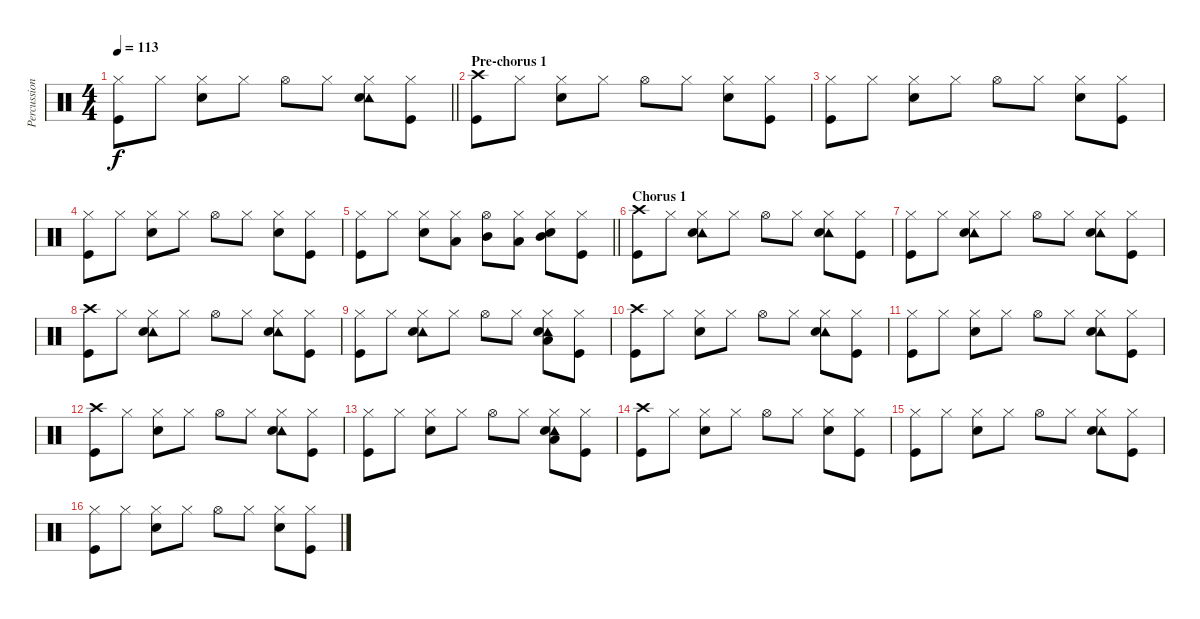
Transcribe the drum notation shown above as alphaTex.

\track ("Percussion" "Percussion") {instrument percussion}
\staff {score}
\articulation defaults
\ts (4 4)
\tempo 113
\clef neutral
\barLineRight lightlight
\ks c
("Hi-Hat (closed)" "Kick (hit)").8{dy f} "Hi-Hat (closed)".8 ("Hi-Hat (closed)" "Snare (hit) 2").8 "Hi-Hat (closed)".8 "Hi-Hat (open)".8 "Hi-Hat (closed)".8 ("Hi-Hat (closed)" "Tambourine (hit)" "Snare (hit) 2").8 ("Hi-Hat (closed)" "Kick (hit)").8 |
\section ("" "Pre-chorus 1")
("Crash high (hit)" "Kick (hit)").8 "Hi-Hat (closed)".8 ("Hi-Hat (closed)" "Snare (hit) 2").8 "Hi-Hat (closed)".8 "Hi-Hat (open)".8 "Hi-Hat (closed)".8 ("Hi-Hat (closed)" "Snare (hit) 2").8 ("Hi-Hat (closed)" "Kick (hit)").8 |
("Hi-Hat (closed)" "Kick (hit)").8 "Hi-Hat (closed)".8 ("Hi-Hat (closed)" "Snare (hit) 2").8 "Hi-Hat (closed)".8 "Hi-Hat (open)".8 "Hi-Hat (closed)".8 ("Hi-Hat (closed)" "Snare (hit) 2").8 ("Hi-Hat (closed)" "Kick (hit)").8 |
("Hi-Hat (closed)" "Kick (hit)").8 "Hi-Hat (closed)".8 ("Hi-Hat (closed)" "Snare (hit) 2").8 "Hi-Hat (closed)".8 "Hi-Hat (open)".8 "Hi-Hat (closed)".8 ("Hi-Hat (closed)" "Snare (hit) 2").8 ("Hi-Hat (closed)" "Kick (hit)").8 |
\barLineRight lightlight
("Hi-Hat (closed)" "Kick (hit)").8 "Hi-Hat (closed)".8 ("Hi-Hat (closed)" "Snare (hit) 2").8 ("Hi-Hat (closed)" "Low Tom (hit)").8 ("Hi-Hat (open)" "Mid Tom (hit)").8 ("Hi-Hat (closed)" "Low Tom (hit)").8 ("Hi-Hat (closed)" "Mid Tom (hit)" "Snare (hit) 2").8 ("Hi-Hat (closed)" "Kick (hit)").8 |
\section ("" "Chorus 1")
("Crash high (hit)" "Kick (hit)").8 "Hi-Hat (closed)".8 ("Hi-Hat (closed)" "Tambourine (hit)" "Snare (hit) 2").8 "Hi-Hat (closed)".8 "Hi-Hat (open)".8 "Hi-Hat (closed)".8 ("Hi-Hat (closed)" "Tambourine (hit)" "Snare (hit) 2").8 ("Hi-Hat (closed)" "Kick (hit)").8 |
("Hi-Hat (closed)" "Kick (hit)").8 "Hi-Hat (closed)".8 ("Hi-Hat (closed)" "Tambourine (hit)" "Snare (hit) 2").8 "Hi-Hat (closed)".8 "Hi-Hat (open)".8 "Hi-Hat (closed)".8 ("Hi-Hat (closed)" "Tambourine (hit)" "Snare (hit) 2").8 ("Hi-Hat (closed)" "Kick (hit)").8 |
("Crash high (hit)" "Kick (hit)").8 "Hi-Hat (closed)".8 ("Hi-Hat (closed)" "Tambourine (hit)" "Snare (hit) 2").8 "Hi-Hat (closed)".8 "Hi-Hat (open)".8 "Hi-Hat (closed)".8 ("Hi-Hat (closed)" "Tambourine (hit)" "Snare (hit) 2").8 ("Hi-Hat (closed)" "Kick (hit)").8 |
("Hi-Hat (closed)" "Kick (hit)").8 "Hi-Hat (closed)".8 ("Hi-Hat (closed)" "Tambourine (hit)" "Snare (hit) 2").8 "Hi-Hat (closed)".8 "Hi-Hat (open)".8 "Hi-Hat (closed)".8 ("Hi-Hat (closed)" "Tambourine (hit)" "Low Tom (hit)" "Snare (hit) 2").8 ("Hi-Hat (closed)" "Kick (hit)").8 |
("Crash high (hit)" "Kick (hit)").8 "Hi-Hat (closed)".8 ("Hi-Hat (closed)" "Snare (hit) 2").8 "Hi-Hat (closed)".8 "Hi-Hat (open)".8 "Hi-Hat (closed)".8 ("Hi-Hat (closed)" "Tambourine (hit)" "Snare (hit) 2").8 ("Hi-Hat (closed)" "Kick (hit)").8 |
("Hi-Hat (closed)" "Kick (hit)").8 "Hi-Hat (closed)".8 ("Hi-Hat (closed)" "Snare (hit) 2").8 "Hi-Hat (closed)".8 "Hi-Hat (open)".8 "Hi-Hat (closed)".8 ("Hi-Hat (closed)" "Tambourine (hit)" "Snare (hit) 2").8 ("Hi-Hat (closed)" "Kick (hit)").8 |
("Crash high (hit)" "Kick (hit)").8 "Hi-Hat (closed)".8 ("Hi-Hat (closed)" "Snare (hit) 2").8 "Hi-Hat (closed)".8 "Hi-Hat (open)".8 "Hi-Hat (closed)".8 ("Hi-Hat (closed)" "Tambourine (hit)" "Snare (hit) 2").8 ("Hi-Hat (closed)" "Kick (hit)").8 |
("Hi-Hat (closed)" "Kick (hit)").8 "Hi-Hat (closed)".8 ("Hi-Hat (closed)" "Snare (hit) 2").8 "Hi-Hat (closed)".8 "Hi-Hat (open)".8 "Hi-Hat (closed)".8 ("Hi-Hat (closed)" "Tambourine (hit)" "Low Tom (hit)" "Snare (hit) 2").8 ("Hi-Hat (closed)" "Kick (hit)").8 |
("Crash high (hit)" "Kick (hit)").8 "Hi-Hat (closed)".8 ("Hi-Hat (closed)" "Snare (hit) 2").8 "Hi-Hat (closed)".8 "Hi-Hat (open)".8 "Hi-Hat (closed)".8 ("Hi-Hat (closed)" "Snare (hit) 2").8 ("Hi-Hat (closed)" "Kick (hit)").8 |
("Hi-Hat (closed)" "Kick (hit)").8 "Hi-Hat (closed)".8 ("Hi-Hat (closed)" "Snare (hit) 2").8 "Hi-Hat (closed)".8 "Hi-Hat (open)".8 "Hi-Hat (closed)".8 ("Hi-Hat (closed)" "Tambourine (hit)" "Snare (hit) 2").8 ("Hi-Hat (closed)" "Kick (hit)").8 |
("Hi-Hat (closed)" "Kick (hit)").8 "Hi-Hat (closed)".8 ("Hi-Hat (closed)" "Snare (hit) 2").8 "Hi-Hat (closed)".8 "Hi-Hat (open)".8 "Hi-Hat (closed)".8 ("Hi-Hat (closed)" "Snare (hit) 2").8 ("Hi-Hat (closed)" "Kick (hit)").8
